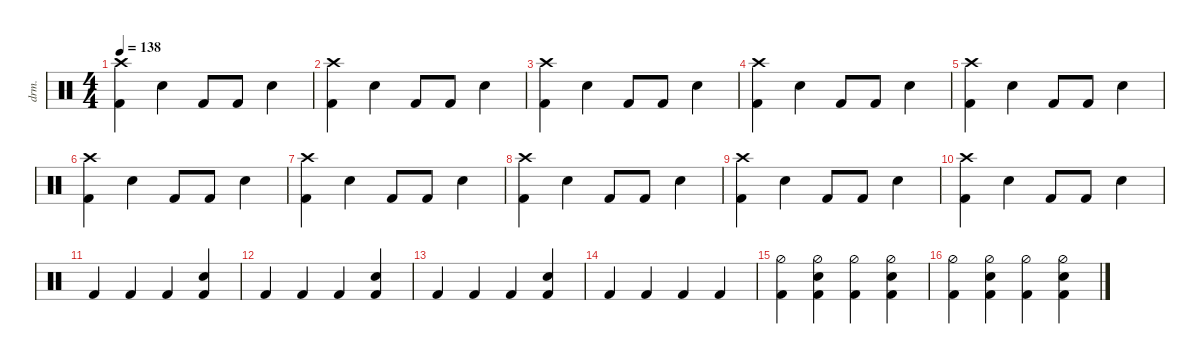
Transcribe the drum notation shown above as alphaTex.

\defaultSystemsLayout 4
\hideDynamics
\bracketExtendMode nobrackets
\otherSystemsTrackNameOrientation horizontal
\track ("Drumkit" "drm.") {instrument percussion bank 128}
\staff {score}
\articulation defaults
\ts (4 4)
\tempo 138
\clef neutral
\ks c
("Crash high (hit)" "Kick (hit) 2").4{dy mf beam Down} "Snare (hit) 2".4{beam Down} "Kick (hit) 2".8{beam Up} "Kick (hit) 2".8{beam Up} "Snare (hit) 2".4{beam Down} |
("Crash high (hit)" "Kick (hit) 2").4{beam Down} "Snare (hit) 2".4{beam Down} "Kick (hit) 2".8{beam Up} "Kick (hit) 2".8{beam Up} "Snare (hit) 2".4{beam Down} |
("Crash high (hit)" "Kick (hit) 2").4{beam Down} "Snare (hit) 2".4{beam Down} "Kick (hit) 2".8{beam Up} "Kick (hit) 2".8{beam Up} "Snare (hit) 2".4{beam Down} |
("Crash high (hit)" "Kick (hit) 2").4{beam Down} "Snare (hit) 2".4{beam Down} "Kick (hit) 2".8{beam Up} "Kick (hit) 2".8{beam Up} "Snare (hit) 2".4{beam Down} |
("Crash high (hit)" "Kick (hit) 2").4{beam Down} "Snare (hit) 2".4{beam Down} "Kick (hit) 2".8{beam Up} "Kick (hit) 2".8{beam Up} "Snare (hit) 2".4{beam Down} |
("Crash high (hit)" "Kick (hit) 2").4{beam Down} "Snare (hit) 2".4{beam Down} "Kick (hit) 2".8{beam Up} "Kick (hit) 2".8{beam Up} "Snare (hit) 2".4{beam Down} |
("Crash high (hit)" "Kick (hit) 2").4{beam Down} "Snare (hit) 2".4{beam Down} "Kick (hit) 2".8{beam Up} "Kick (hit) 2".8{beam Up} "Snare (hit) 2".4{beam Down} |
("Crash high (hit)" "Kick (hit) 2").4{beam Down} "Snare (hit) 2".4{beam Down} "Kick (hit) 2".8{beam Up} "Kick (hit) 2".8{beam Up} "Snare (hit) 2".4{beam Down} |
("Crash high (hit)" "Kick (hit) 2").4{beam Down} "Snare (hit) 2".4{beam Down} "Kick (hit) 2".8{beam Up} "Kick (hit) 2".8{beam Up} "Snare (hit) 2".4{beam Down} |
("Crash high (hit)" "Kick (hit) 2").4{beam Down} "Snare (hit) 2".4{beam Down} "Kick (hit) 2".8{beam Up} "Kick (hit) 2".8{beam Up} "Snare (hit) 2".4{beam Down} |
"Kick (hit) 2".4{beam Up} "Kick (hit) 2".4{beam Up} "Kick (hit) 2".4{beam Up} ("Kick (hit) 2" "Snare (hit) 2").4{beam Up} |
"Kick (hit) 2".4{beam Up} "Kick (hit) 2".4{beam Up} "Kick (hit) 2".4{beam Up} ("Kick (hit) 2" "Snare (hit) 2").4{beam Up} |
"Kick (hit) 2".4{beam Up} "Kick (hit) 2".4{beam Up} "Kick (hit) 2".4{beam Up} ("Kick (hit) 2" "Snare (hit) 2").4{beam Up} |
"Kick (hit) 2".4{beam Up} "Kick (hit) 2".4{beam Up} "Kick (hit) 2".4{beam Up} "Kick (hit) 2".4{beam Up} |
("Kick (hit) 2" "Hi-Hat (half)").4{beam Down} ("Kick (hit) 2" "Snare (hit) 2" "Hi-Hat (half)").4{beam Down} ("Kick (hit) 2" "Hi-Hat (half)").4{beam Down} ("Kick (hit) 2" "Snare (hit) 2" "Hi-Hat (half)").4{beam Down} |
("Kick (hit) 2" "Hi-Hat (half)").4{beam Down} ("Kick (hit) 2" "Snare (hit) 2" "Hi-Hat (half)").4{beam Down} ("Kick (hit) 2" "Hi-Hat (half)").4{beam Down} ("Kick (hit) 2" "Snare (hit) 2" "Hi-Hat (half)").4{beam Down}
